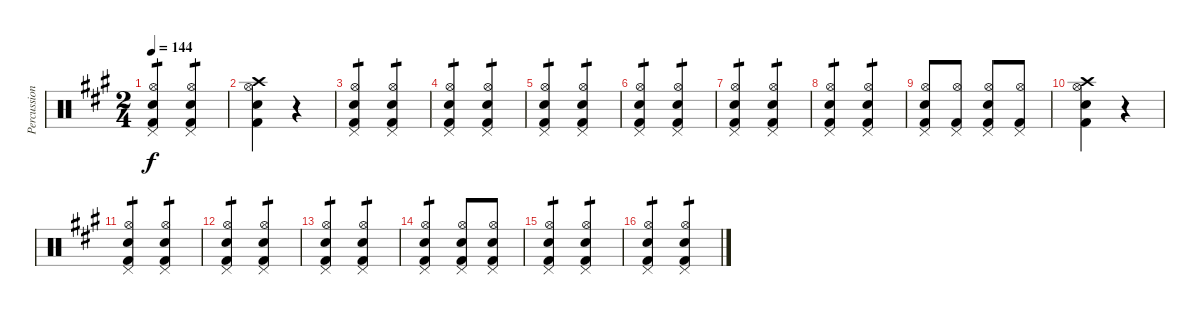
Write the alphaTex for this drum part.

\track ("Percussion" "Percussion") {instrument percussion}
\staff {score}
\articulation defaults
\ts (2 4)
\tempo 144
\clef neutral
\ks a
("Pedal Hi-Hat (hit)" "Hi-Hat (open)" "Snare (hit) 2" "Kick (hit) 2").4{tp 1 dy f} ("Pedal Hi-Hat (hit)" "Hi-Hat (open)" "Snare (hit) 2" "Kick (hit) 2").4{tp 1} |
("Crash high (hit)" "Hi-Hat (open)" "Snare (hit) 2" "Kick (hit) 2").4 r.4 |
("Pedal Hi-Hat (hit)" "Hi-Hat (open)" "Snare (hit) 2" "Kick (hit) 2").4{tp 1} ("Pedal Hi-Hat (hit)" "Hi-Hat (open)" "Snare (hit) 2" "Kick (hit) 2").4{tp 1} |
("Pedal Hi-Hat (hit)" "Hi-Hat (open)" "Snare (hit) 2" "Kick (hit) 2").4{tp 1} ("Pedal Hi-Hat (hit)" "Hi-Hat (open)" "Snare (hit) 2" "Kick (hit) 2").4{tp 1} |
("Pedal Hi-Hat (hit)" "Hi-Hat (open)" "Snare (hit) 2" "Kick (hit) 2").4{tp 1} ("Pedal Hi-Hat (hit)" "Hi-Hat (open)" "Snare (hit) 2" "Kick (hit) 2").4{tp 1} |
("Pedal Hi-Hat (hit)" "Hi-Hat (open)" "Snare (hit) 2" "Kick (hit) 2").4{tp 1} ("Pedal Hi-Hat (hit)" "Hi-Hat (open)" "Snare (hit) 2" "Kick (hit) 2").4{tp 1} |
("Pedal Hi-Hat (hit)" "Hi-Hat (open)" "Snare (hit) 2" "Kick (hit) 2").4{tp 1} ("Pedal Hi-Hat (hit)" "Hi-Hat (open)" "Snare (hit) 2" "Kick (hit) 2").4{tp 1} |
("Pedal Hi-Hat (hit)" "Hi-Hat (open)" "Snare (hit) 2" "Kick (hit) 2").4{tp 1} ("Pedal Hi-Hat (hit)" "Hi-Hat (open)" "Snare (hit) 2" "Kick (hit) 2").4{tp 1} |
("Pedal Hi-Hat (hit)" "Hi-Hat (open)" "Snare (hit) 2" "Kick (hit) 2").8 ("Pedal Hi-Hat (hit)" "Hi-Hat (open)" "Kick (hit) 2").8 ("Pedal Hi-Hat (hit)" "Hi-Hat (open)" "Snare (hit) 2" "Kick (hit) 2").8 ("Pedal Hi-Hat (hit)" "Hi-Hat (open)" "Kick (hit) 2").8 |
("Crash high (hit)" "Hi-Hat (open)" "Snare (hit) 2" "Kick (hit) 2").4 r.4 |
("Pedal Hi-Hat (hit)" "Hi-Hat (open)" "Snare (hit) 2" "Kick (hit) 2").4{tp 1} ("Pedal Hi-Hat (hit)" "Hi-Hat (open)" "Snare (hit) 2" "Kick (hit) 2").4{tp 1} |
("Pedal Hi-Hat (hit)" "Hi-Hat (open)" "Snare (hit) 2" "Kick (hit) 2").4{tp 1} ("Pedal Hi-Hat (hit)" "Hi-Hat (open)" "Snare (hit) 2" "Kick (hit) 2").4{tp 1} |
("Pedal Hi-Hat (hit)" "Hi-Hat (open)" "Snare (hit) 2" "Kick (hit) 2").4{tp 1} ("Pedal Hi-Hat (hit)" "Hi-Hat (open)" "Snare (hit) 2" "Kick (hit) 2").4{tp 1} |
("Pedal Hi-Hat (hit)" "Hi-Hat (open)" "Snare (hit) 2" "Kick (hit) 2").4{tp 1} ("Pedal Hi-Hat (hit)" "Hi-Hat (open)" "Snare (hit) 2" "Kick (hit) 2").8 ("Pedal Hi-Hat (hit)" "Hi-Hat (open)" "Snare (hit) 2" "Kick (hit) 2").8 |
("Pedal Hi-Hat (hit)" "Hi-Hat (open)" "Snare (hit) 2" "Kick (hit) 2").4{tp 1} ("Pedal Hi-Hat (hit)" "Hi-Hat (open)" "Snare (hit) 2" "Kick (hit) 2").4{tp 1} |
("Pedal Hi-Hat (hit)" "Hi-Hat (open)" "Snare (hit) 2" "Kick (hit) 2").4{tp 1} ("Pedal Hi-Hat (hit)" "Hi-Hat (open)" "Snare (hit) 2" "Kick (hit) 2").4{tp 1}
